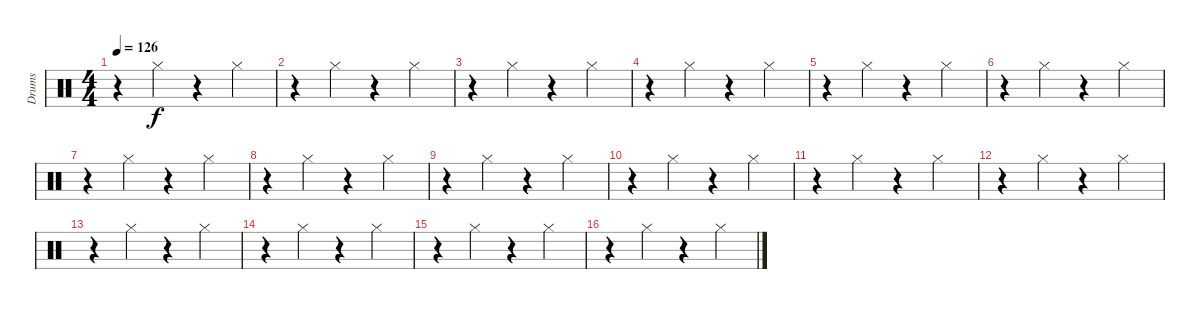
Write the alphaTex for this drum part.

\track ("Drums" "Drums") {instrument percussion}
\staff {score}
\articulation defaults
\ts (4 4)
\tempo 126
\clef neutral
\ks c
r.4{dy f} "Hi-Hat (closed)".4 r.4 "Hi-Hat (closed)".4 |
r.4 "Hi-Hat (closed)".4 r.4 "Hi-Hat (closed)".4 |
r.4 "Hi-Hat (closed)".4 r.4 "Hi-Hat (closed)".4 |
r.4 "Hi-Hat (closed)".4 r.4 "Hi-Hat (closed)".4 |
r.4 "Hi-Hat (closed)".4 r.4 "Hi-Hat (closed)".4 |
r.4 "Hi-Hat (closed)".4 r.4 "Hi-Hat (closed)".4 |
r.4 "Hi-Hat (closed)".4 r.4 "Hi-Hat (closed)".4 |
r.4 "Hi-Hat (closed)".4 r.4 "Hi-Hat (closed)".4 |
r.4 "Hi-Hat (closed)".4 r.4 "Hi-Hat (closed)".4 |
r.4 "Hi-Hat (closed)".4 r.4 "Hi-Hat (closed)".4 |
r.4 "Hi-Hat (closed)".4 r.4 "Hi-Hat (closed)".4 |
r.4 "Hi-Hat (closed)".4 r.4 "Hi-Hat (closed)".4 |
r.4 "Hi-Hat (closed)".4 r.4 "Hi-Hat (closed)".4 |
r.4 "Hi-Hat (closed)".4 r.4 "Hi-Hat (closed)".4 |
r.4 "Hi-Hat (closed)".4 r.4 "Hi-Hat (closed)".4 |
r.4 "Hi-Hat (closed)".4 r.4 "Hi-Hat (closed)".4
